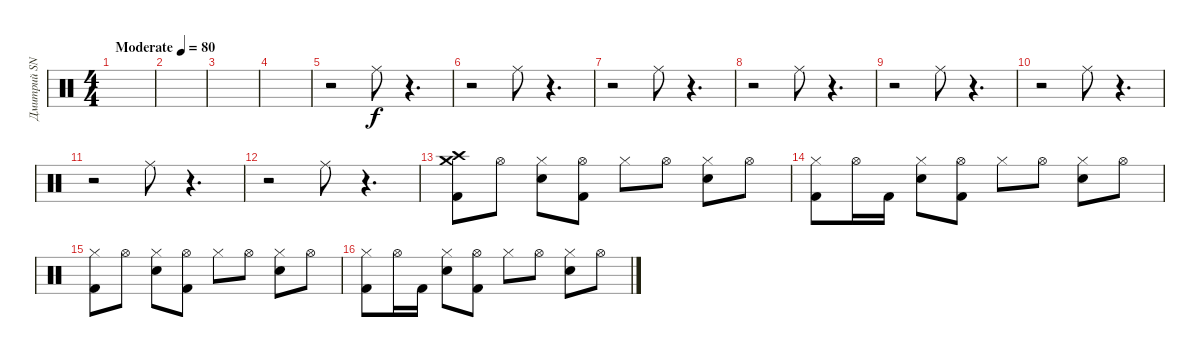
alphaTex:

\track ("Дмитрий SNAKE Хакимов" "Дмитрий SN") {instrument percussion}
\staff {score}
\articulation defaults
\ts (4 4)
\tempo (80 "Moderate")
\clef neutral
\ks c
|
|
|
|
r.2 "Ride (middle)".8 r.4{d} |
r.2 "Ride (middle)".8 r.4{d} |
r.2 "Ride (middle)".8 r.4{d} |
r.2 "Ride (middle)".8 r.4{d} |
r.2 "Ride (middle)".8 r.4{d} |
r.2 "Ride (middle)".8 r.4{d} |
r.2 "Ride (middle)".8 r.4{d} |
r.2 "Ride (middle)".8 r.4{d} |
("Crash high (hit)" "Crash medium (hit)" "Kick (hit) 2").8 "Hi-Hat (open)".8 ("Hi-Hat (closed)" "Electric Snare (hit)").8 ("Hi-Hat (open)" "Kick (hit) 2").8 "Hi-Hat (closed)".8 "Hi-Hat (open)".8 ("Hi-Hat (closed)" "Electric Snare (hit)").8 "Hi-Hat (open)".8 |
("Hi-Hat (closed)" "Kick (hit) 2").8 "Hi-Hat (open)".16 "Kick (hit) 2".16 ("Hi-Hat (closed)" "Electric Snare (hit)").8 ("Hi-Hat (open)" "Kick (hit) 2").8 "Hi-Hat (closed)".8 "Hi-Hat (open)".8 ("Hi-Hat (closed)" "Electric Snare (hit)").8 "Hi-Hat (open)".8 |
("Hi-Hat (closed)" "Kick (hit) 2").8 "Hi-Hat (open)".8 ("Hi-Hat (closed)" "Electric Snare (hit)").8 ("Hi-Hat (open)" "Kick (hit) 2").8 "Hi-Hat (closed)".8 "Hi-Hat (open)".8 ("Hi-Hat (closed)" "Electric Snare (hit)").8 "Hi-Hat (open)".8 |
("Hi-Hat (closed)" "Kick (hit) 2").8 "Hi-Hat (open)".16 "Kick (hit) 2".16 ("Hi-Hat (closed)" "Electric Snare (hit)").8 ("Hi-Hat (open)" "Kick (hit) 2").8 "Hi-Hat (closed)".8 "Hi-Hat (open)".8 ("Hi-Hat (closed)" "Electric Snare (hit)").8 "Hi-Hat (open)".8
